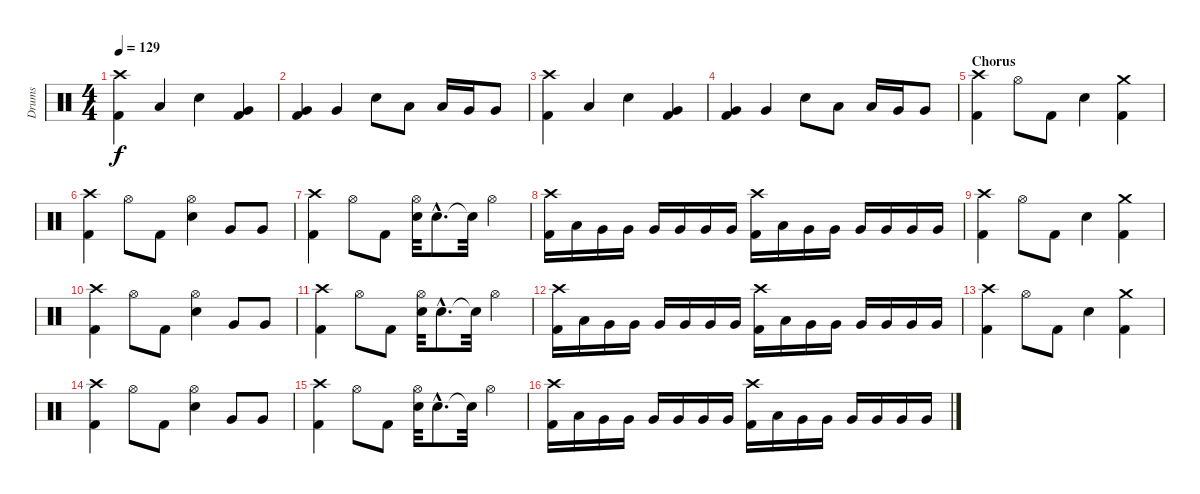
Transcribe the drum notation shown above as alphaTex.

\track ("Drums" "Drums") {instrument percussion}
\staff {score}
\articulation defaults
\ts (4 4)
\tempo 129
\clef neutral
\ks c
("Crash high (hit)" "Kick (hit) 2").4{dy f} "Low Tom (hit)".4 "Snare (hit) 2".4 ("Very Low Tom (hit)" "Kick (hit) 2").4 |
("Very Low Tom (hit)" "Kick (hit) 2").4 "Very Low Tom (hit)".4 "Snare (hit) 2".8 "Low Tom (hit)".8 "Low Tom (hit)".16 "Very Low Tom (hit)".16 "Very Low Tom (hit)".8 |
("Crash high (hit)" "Kick (hit) 2").4 "Low Tom (hit)".4 "Snare (hit) 2".4 ("Very Low Tom (hit)" "Kick (hit) 2").4 |
("Very Low Tom (hit)" "Kick (hit) 2").4 "Very Low Tom (hit)".4 "Snare (hit) 2".8 "Low Tom (hit)".8 "Low Tom (hit)".16 "Very Low Tom (hit)".16 "Very Low Tom (hit)".8 |
\section ("" "Chorus")
("Crash high (hit)" "Kick (hit) 2").4 "Hi-Hat (open)".8 "Kick (hit) 2".8 "Snare (hit) 2".4 ("Crash medium (hit)" "Kick (hit) 2").4 |
("Crash high (hit)" "Kick (hit) 2").4 "Hi-Hat (open)".8 "Kick (hit) 2".8 ("Hi-Hat (open)" "Snare (hit) 2").4 "Very Low Tom (hit)".8 "Very Low Tom (hit)".8 |
("Crash high (hit)" "Kick (hit) 2").4 "Hi-Hat (open)".8 "Kick (hit) 2".8 ("Hi-Hat (open)" "Snare (hit) 2").32 "Snare (hit) 2"{hac}.8{d} "Snare (hit)"{t}.32 "Hi-Hat (open)".4 |
("Crash high (hit)" "Kick (hit) 2").16 "Low Tom (hit)".16 "Very Low Tom (hit)".16 "Very Low Tom (hit)".16 "Very Low Tom (hit)".16 "Very Low Tom (hit)".16 "Very Low Tom (hit)".16 "Very Low Tom (hit)".16 ("Crash high (hit)" "Kick (hit) 2").16 "Low Tom (hit)".16 "Very Low Tom (hit)".16 "Very Low Tom (hit)".16 "Very Low Tom (hit)".16 "Very Low Tom (hit)".16 "Very Low Tom (hit)".16 "Very Low Tom (hit)".16 |
("Crash high (hit)" "Kick (hit) 2").4 "Hi-Hat (open)".8 "Kick (hit) 2".8 "Snare (hit) 2".4 ("Crash medium (hit)" "Kick (hit) 2").4 |
("Crash high (hit)" "Kick (hit) 2").4 "Hi-Hat (open)".8 "Kick (hit) 2".8 ("Hi-Hat (open)" "Snare (hit) 2").4 "Very Low Tom (hit)".8 "Very Low Tom (hit)".8 |
("Crash high (hit)" "Kick (hit) 2").4 "Hi-Hat (open)".8 "Kick (hit) 2".8 ("Hi-Hat (open)" "Snare (hit) 2").32 "Snare (hit) 2"{hac}.8{d} "Snare (hit)"{t}.32 "Hi-Hat (open)".4 |
("Crash high (hit)" "Kick (hit) 2").16 "Low Tom (hit)".16 "Very Low Tom (hit)".16 "Very Low Tom (hit)".16 "Very Low Tom (hit)".16 "Very Low Tom (hit)".16 "Very Low Tom (hit)".16 "Very Low Tom (hit)".16 ("Crash high (hit)" "Kick (hit) 2").16 "Low Tom (hit)".16 "Very Low Tom (hit)".16 "Very Low Tom (hit)".16 "Very Low Tom (hit)".16 "Very Low Tom (hit)".16 "Very Low Tom (hit)".16 "Very Low Tom (hit)".16 |
("Crash high (hit)" "Kick (hit) 2").4 "Hi-Hat (open)".8 "Kick (hit) 2".8 "Snare (hit) 2".4 ("Crash medium (hit)" "Kick (hit) 2").4 |
("Crash high (hit)" "Kick (hit) 2").4 "Hi-Hat (open)".8 "Kick (hit) 2".8 ("Hi-Hat (open)" "Snare (hit) 2").4 "Very Low Tom (hit)".8 "Very Low Tom (hit)".8 |
("Crash high (hit)" "Kick (hit) 2").4 "Hi-Hat (open)".8 "Kick (hit) 2".8 ("Hi-Hat (open)" "Snare (hit) 2").32 "Snare (hit) 2"{hac}.8{d} "Snare (hit)"{t}.32 "Hi-Hat (open)".4 |
("Crash high (hit)" "Kick (hit) 2").16 "Low Tom (hit)".16 "Very Low Tom (hit)".16 "Very Low Tom (hit)".16 "Very Low Tom (hit)".16 "Very Low Tom (hit)".16 "Very Low Tom (hit)".16 "Very Low Tom (hit)".16 ("Crash high (hit)" "Kick (hit) 2").16 "Low Tom (hit)".16 "Very Low Tom (hit)".16 "Very Low Tom (hit)".16 "Very Low Tom (hit)".16 "Very Low Tom (hit)".16 "Very Low Tom (hit)".16 "Very Low Tom (hit)".16
